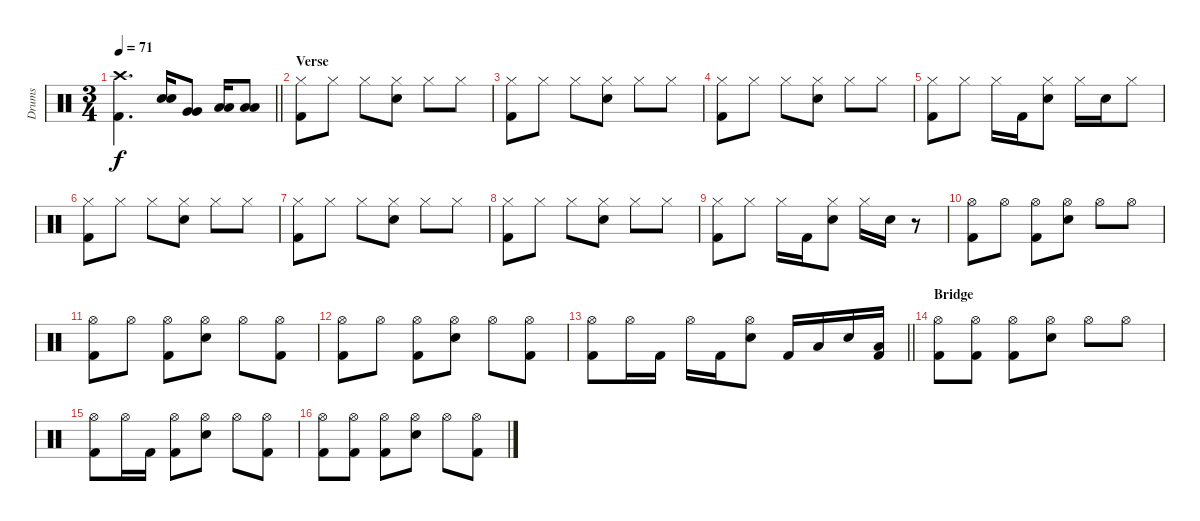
\track ("Drums" "Drums") {instrument percussion}
\staff {score}
\articulation defaults
\ts (3 4)
\tempo 71
\clef neutral
\barLineRight lightlight
\ks c
("Crash high (hit)" "Kick (hit) 2").4{d dy f} ("Snare (hit) 2" "Snare (hit) 2").16 ("Very Low Tom (hit)" "Very Low Tom (hit)").8 ("Low Floor Tom (hit)" "Low Floor Tom (hit)").16 ("Low Floor Tom (hit)" "Low Floor Tom (hit)").8 |
\section ("" "Verse")
("Hi-Hat (closed)" "Kick (hit) 2").8 "Hi-Hat (closed)".8 "Hi-Hat (closed)".8 ("Hi-Hat (closed)" "Snare (hit) 2").8 "Hi-Hat (closed)".8 "Hi-Hat (closed)".8 |
("Hi-Hat (closed)" "Kick (hit) 2").8 "Hi-Hat (closed)".8 "Hi-Hat (closed)".8 ("Hi-Hat (closed)" "Snare (hit) 2").8 "Hi-Hat (closed)".8 "Hi-Hat (closed)".8 |
("Hi-Hat (closed)" "Kick (hit) 2").8 "Hi-Hat (closed)".8 "Hi-Hat (closed)".8 ("Hi-Hat (closed)" "Snare (hit) 2").8 "Hi-Hat (closed)".8 "Hi-Hat (closed)".8 |
("Hi-Hat (closed)" "Kick (hit) 2").8 "Hi-Hat (closed)".8 "Hi-Hat (closed)".16 "Kick (hit) 2".16 ("Hi-Hat (closed)" "Snare (hit) 2").8 "Hi-Hat (closed)".16 "Snare (hit) 2".16 "Hi-Hat (closed)".8 |
("Hi-Hat (closed)" "Kick (hit) 2").8 "Hi-Hat (closed)".8 "Hi-Hat (closed)".8 ("Hi-Hat (closed)" "Snare (hit) 2").8 "Hi-Hat (closed)".8 "Hi-Hat (closed)".8 |
("Hi-Hat (closed)" "Kick (hit) 2").8 "Hi-Hat (closed)".8 "Hi-Hat (closed)".8 ("Hi-Hat (closed)" "Snare (hit) 2").8 "Hi-Hat (closed)".8 "Hi-Hat (closed)".8 |
("Hi-Hat (closed)" "Kick (hit) 2").8 "Hi-Hat (closed)".8 "Hi-Hat (closed)".8 ("Hi-Hat (closed)" "Snare (hit) 2").8 "Hi-Hat (closed)".8 "Hi-Hat (closed)".8 |
("Hi-Hat (closed)" "Kick (hit) 2").8 "Hi-Hat (closed)".8 "Hi-Hat (closed)".16 "Kick (hit) 2".16 ("Hi-Hat (closed)" "Snare (hit) 2").8 "Hi-Hat (closed)".16 "Snare (hit) 2".16 r.8 |
("Hi-Hat (open)" "Kick (hit) 2").8 "Hi-Hat (open)".8 ("Hi-Hat (open)" "Kick (hit) 2").8 ("Hi-Hat (open)" "Snare (hit) 2").8 "Hi-Hat (open)".8 "Hi-Hat (open)".8 |
("Hi-Hat (open)" "Kick (hit) 2").8 "Hi-Hat (open)".8 ("Hi-Hat (open)" "Kick (hit) 2").8 ("Hi-Hat (open)" "Snare (hit) 2").8 "Hi-Hat (open)".8 ("Hi-Hat (open)" "Kick (hit) 2").8 |
("Hi-Hat (open)" "Kick (hit) 2").8 "Hi-Hat (open)".8 ("Hi-Hat (open)" "Kick (hit) 2").8 ("Hi-Hat (open)" "Snare (hit) 2").8 "Hi-Hat (open)".8 ("Hi-Hat (open)" "Kick (hit) 2").8 |
\barLineRight lightlight
("Hi-Hat (open)" "Kick (hit) 2").8 "Hi-Hat (open)".16 "Kick (hit) 2".16 "Hi-Hat (open)".16 "Kick (hit) 2".16 ("Hi-Hat (open)" "Snare (hit) 2").8 "Kick (hit) 2".16 "Low Floor Tom (hit)".16 "Snare (hit) 2".16 ("Low Floor Tom (hit)" "Kick (hit) 2").16 |
\section ("" "Bridge")
("Hi-Hat (open)" "Kick (hit) 2").8 ("Hi-Hat (open)" "Kick (hit) 2").8 ("Hi-Hat (open)" "Kick (hit) 2").8 ("Hi-Hat (open)" "Snare (hit) 2").8 "Hi-Hat (open)".8 "Hi-Hat (open)".8 |
("Hi-Hat (open)" "Kick (hit) 2").8 "Hi-Hat (open)".16 "Kick (hit) 2".16 ("Hi-Hat (open)" "Kick (hit) 2").8 ("Hi-Hat (open)" "Snare (hit) 2").8 "Hi-Hat (open)".8 ("Hi-Hat (open)" "Kick (hit) 2").8 |
("Hi-Hat (open)" "Kick (hit) 2").8 ("Hi-Hat (open)" "Kick (hit) 2").8 ("Hi-Hat (open)" "Kick (hit) 2").8 ("Hi-Hat (open)" "Snare (hit) 2").8 "Hi-Hat (open)".8 ("Hi-Hat (open)" "Kick (hit) 2").8
